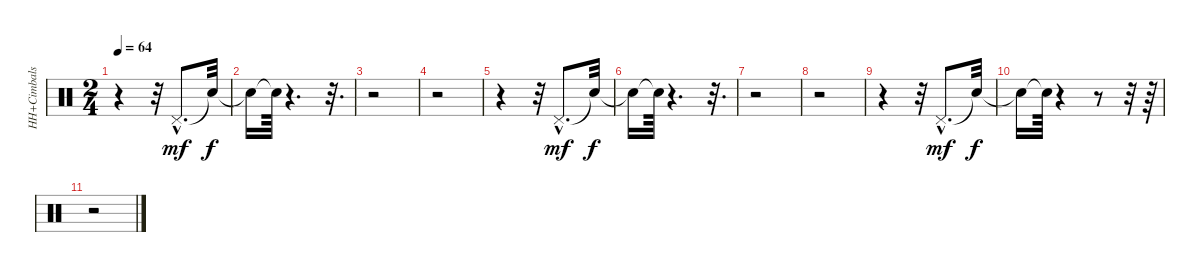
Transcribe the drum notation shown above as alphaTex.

\track ("HH+Cimbals" "HH+Cimbals") {instrument percussion}
\staff {score}
\articulation defaults
\ts (2 4)
\tempo 64
\clef neutral
\ks c
r.4{dy f} r.32 "Pedal Hi-Hat (hit)"{hac}.8{d dy mf} "Snare (hit)"{t}.32{dy f} |
"Snare (hit)"{t}.16 "Snare (hit)"{t}.64 r.4{d} r.32{d} |
r.2 |
r.2 |
r.4 r.32 "Pedal Hi-Hat (hit)"{hac}.8{d dy mf} "Snare (hit)"{t}.32{dy f} |
"Snare (hit)"{t}.16 "Snare (hit)"{t}.64 r.4{d} r.32{d} |
r.2 |
r.2 |
r.4 r.32 "Pedal Hi-Hat (hit)"{hac}.8{d dy mf} "Snare (hit)"{t}.32{dy f} |
"Snare (hit)"{t}.16 "Snare (hit)"{t}.64 r.4 r.8 r.32 r.64 |
r.2
